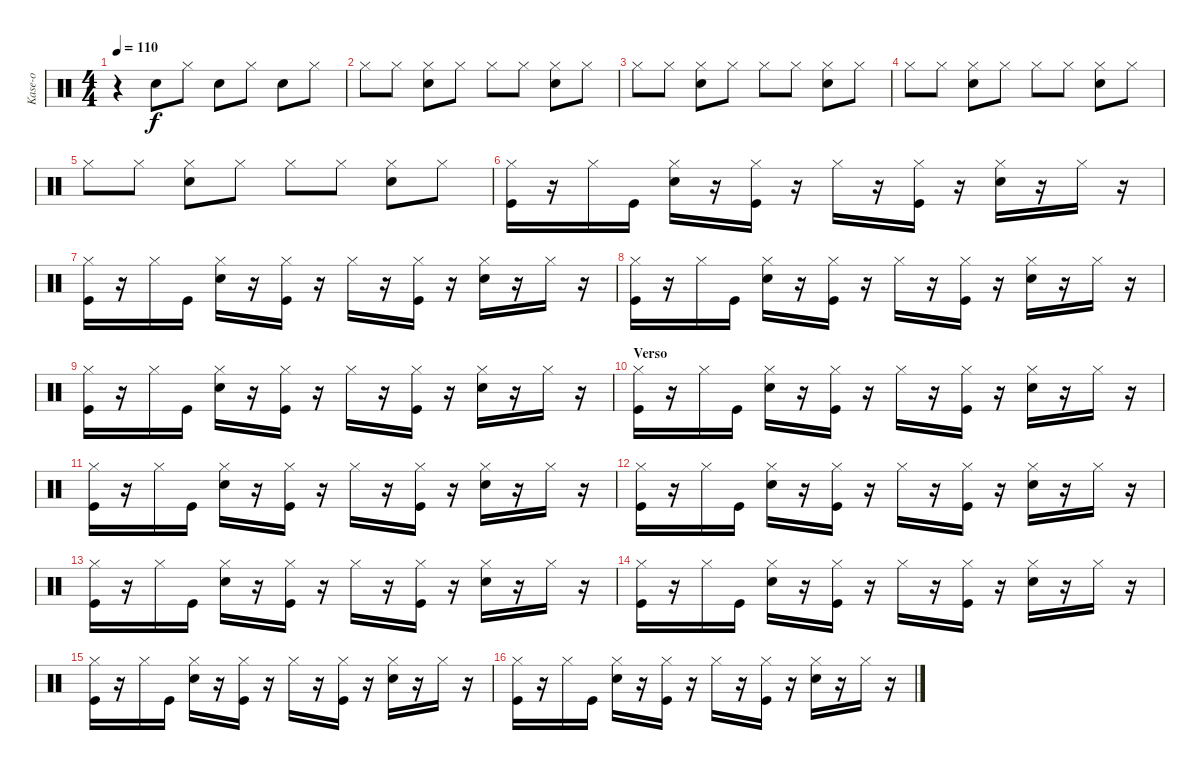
\track ("Kase-o" "Kase-o") {instrument percussion}
\staff {score}
\articulation defaults
\ts (4 4)
\tempo 110
\clef neutral
\ks c
r.4{dy f} "Electric Snare (hit)".8 "Hi-Hat (closed)".8 "Electric Snare (hit)".8 "Hi-Hat (closed)".8 "Electric Snare (hit)".8 "Hi-Hat (closed)".8 |
"Hi-Hat (closed)".8 "Hi-Hat (closed)".8 ("Hi-Hat (closed)" "Electric Snare (hit)").8 "Hi-Hat (closed)".8 "Hi-Hat (closed)".8 "Hi-Hat (closed)".8 ("Hi-Hat (closed)" "Electric Snare (hit)").8 "Hi-Hat (closed)".8 |
"Hi-Hat (closed)".8 "Hi-Hat (closed)".8 ("Hi-Hat (closed)" "Electric Snare (hit)").8 "Hi-Hat (closed)".8 "Hi-Hat (closed)".8 "Hi-Hat (closed)".8 ("Hi-Hat (closed)" "Electric Snare (hit)").8 "Hi-Hat (closed)".8 |
"Hi-Hat (closed)".8 "Hi-Hat (closed)".8 ("Hi-Hat (closed)" "Electric Snare (hit)").8 "Hi-Hat (closed)".8 "Hi-Hat (closed)".8 "Hi-Hat (closed)".8 ("Hi-Hat (closed)" "Electric Snare (hit)").8 "Hi-Hat (closed)".8 |
"Hi-Hat (closed)".8 "Hi-Hat (closed)".8 ("Hi-Hat (closed)" "Electric Snare (hit)").8 "Hi-Hat (closed)".8 "Hi-Hat (closed)".8 "Hi-Hat (closed)".8 ("Hi-Hat (closed)" "Electric Snare (hit)").8 "Hi-Hat (closed)".8 |
("Hi-Hat (closed)" "Kick (hit)").16 r.16 "Hi-Hat (closed)".16 "Kick (hit)".16 ("Hi-Hat (closed)" "Electric Snare (hit)").16 r.16 ("Hi-Hat (closed)" "Kick (hit)").16 r.16 "Hi-Hat (closed)".16 r.16 ("Hi-Hat (closed)" "Kick (hit)").16 r.16 ("Hi-Hat (closed)" "Electric Snare (hit)").16 r.16 "Hi-Hat (closed)".16 r.16 |
("Hi-Hat (closed)" "Kick (hit)").16 r.16 "Hi-Hat (closed)".16 "Kick (hit)".16 ("Hi-Hat (closed)" "Electric Snare (hit)").16 r.16 ("Hi-Hat (closed)" "Kick (hit)").16 r.16 "Hi-Hat (closed)".16 r.16 ("Hi-Hat (closed)" "Kick (hit)").16 r.16 ("Hi-Hat (closed)" "Electric Snare (hit)").16 r.16 "Hi-Hat (closed)".16 r.16 |
("Hi-Hat (closed)" "Kick (hit)").16 r.16 "Hi-Hat (closed)".16 "Kick (hit)".16 ("Hi-Hat (closed)" "Electric Snare (hit)").16 r.16 ("Hi-Hat (closed)" "Kick (hit)").16 r.16 "Hi-Hat (closed)".16 r.16 ("Hi-Hat (closed)" "Kick (hit)").16 r.16 ("Hi-Hat (closed)" "Electric Snare (hit)").16 r.16 "Hi-Hat (closed)".16 r.16 |
("Hi-Hat (closed)" "Kick (hit)").16 r.16 "Hi-Hat (closed)".16 "Kick (hit)".16 ("Hi-Hat (closed)" "Electric Snare (hit)").16 r.16 ("Hi-Hat (closed)" "Kick (hit)").16 r.16 "Hi-Hat (closed)".16 r.16 ("Hi-Hat (closed)" "Kick (hit)").16 r.16 ("Hi-Hat (closed)" "Electric Snare (hit)").16 r.16 "Hi-Hat (closed)".16 r.16 |
\section ("" "Verso")
("Hi-Hat (closed)" "Kick (hit)").16 r.16 "Hi-Hat (closed)".16 "Kick (hit)".16 ("Hi-Hat (closed)" "Electric Snare (hit)").16 r.16 ("Hi-Hat (closed)" "Kick (hit)").16 r.16 "Hi-Hat (closed)".16 r.16 ("Hi-Hat (closed)" "Kick (hit)").16 r.16 ("Hi-Hat (closed)" "Electric Snare (hit)").16 r.16 "Hi-Hat (closed)".16 r.16 |
("Hi-Hat (closed)" "Kick (hit)").16 r.16 "Hi-Hat (closed)".16 "Kick (hit)".16 ("Hi-Hat (closed)" "Electric Snare (hit)").16 r.16 ("Hi-Hat (closed)" "Kick (hit)").16 r.16 "Hi-Hat (closed)".16 r.16 ("Hi-Hat (closed)" "Kick (hit)").16 r.16 ("Hi-Hat (closed)" "Electric Snare (hit)").16 r.16 "Hi-Hat (closed)".16 r.16 |
("Hi-Hat (closed)" "Kick (hit)").16 r.16 "Hi-Hat (closed)".16 "Kick (hit)".16 ("Hi-Hat (closed)" "Electric Snare (hit)").16 r.16 ("Hi-Hat (closed)" "Kick (hit)").16 r.16 "Hi-Hat (closed)".16 r.16 ("Hi-Hat (closed)" "Kick (hit)").16 r.16 ("Hi-Hat (closed)" "Electric Snare (hit)").16 r.16 "Hi-Hat (closed)".16 r.16 |
("Hi-Hat (closed)" "Kick (hit)").16 r.16 "Hi-Hat (closed)".16 "Kick (hit)".16 ("Hi-Hat (closed)" "Electric Snare (hit)").16 r.16 ("Hi-Hat (closed)" "Kick (hit)").16 r.16 "Hi-Hat (closed)".16 r.16 ("Hi-Hat (closed)" "Kick (hit)").16 r.16 ("Hi-Hat (closed)" "Electric Snare (hit)").16 r.16 "Hi-Hat (closed)".16 r.16 |
("Hi-Hat (closed)" "Kick (hit)").16 r.16 "Hi-Hat (closed)".16 "Kick (hit)".16 ("Hi-Hat (closed)" "Electric Snare (hit)").16 r.16 ("Hi-Hat (closed)" "Kick (hit)").16 r.16 "Hi-Hat (closed)".16 r.16 ("Hi-Hat (closed)" "Kick (hit)").16 r.16 ("Hi-Hat (closed)" "Electric Snare (hit)").16 r.16 "Hi-Hat (closed)".16 r.16 |
("Hi-Hat (closed)" "Kick (hit)").16 r.16 "Hi-Hat (closed)".16 "Kick (hit)".16 ("Hi-Hat (closed)" "Electric Snare (hit)").16 r.16 ("Hi-Hat (closed)" "Kick (hit)").16 r.16 "Hi-Hat (closed)".16 r.16 ("Hi-Hat (closed)" "Kick (hit)").16 r.16 ("Hi-Hat (closed)" "Electric Snare (hit)").16 r.16 "Hi-Hat (closed)".16 r.16 |
("Hi-Hat (closed)" "Kick (hit)").16 r.16 "Hi-Hat (closed)".16 "Kick (hit)".16 ("Hi-Hat (closed)" "Electric Snare (hit)").16 r.16 ("Hi-Hat (closed)" "Kick (hit)").16 r.16 "Hi-Hat (closed)".16 r.16 ("Hi-Hat (closed)" "Kick (hit)").16 r.16 ("Hi-Hat (closed)" "Electric Snare (hit)").16 r.16 "Hi-Hat (closed)".16 r.16
